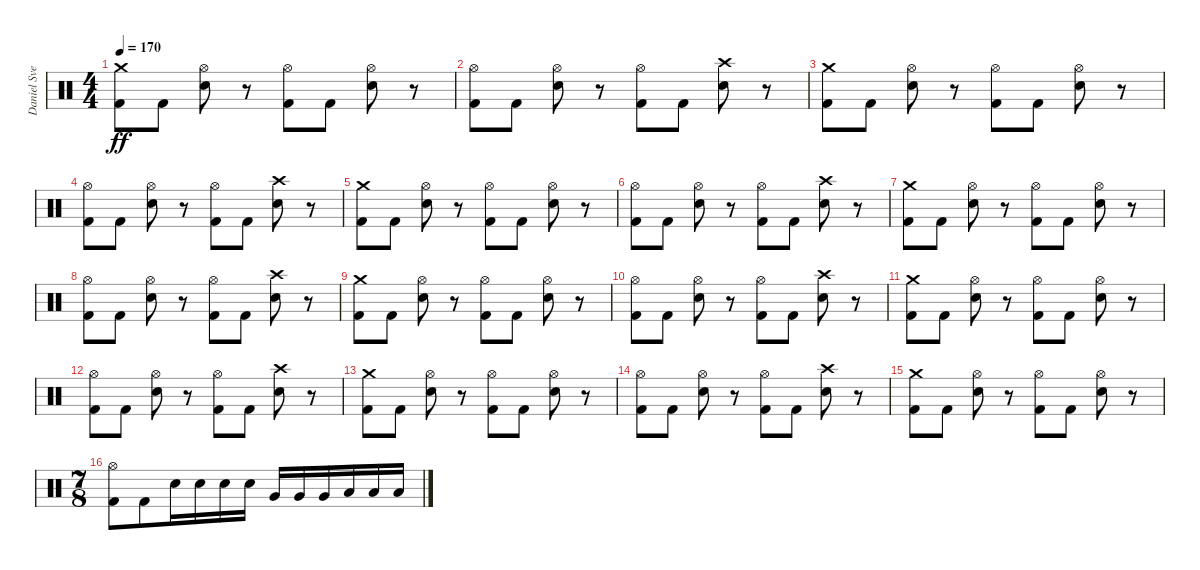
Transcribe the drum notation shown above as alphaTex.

\track ("Daniel Svensson" "Daniel Sve") {instrument percussion}
\staff {score}
\articulation defaults
\ts (4 4)
\tempo 170
\clef neutral
\ks c
("Crash medium (hit)" "Kick (hit) 2").8{dy ff} "Kick (hit) 2".8 ("Hi-Hat (open)" "Electric Snare (hit)").8 r.8 ("Hi-Hat (open)" "Kick (hit) 2").8 "Kick (hit) 2".8 ("Hi-Hat (open)" "Electric Snare (hit)").8 r.8 |
("Hi-Hat (open)" "Kick (hit) 2").8 "Kick (hit) 2".8 ("Hi-Hat (open)" "Electric Snare (hit)").8 r.8 ("Hi-Hat (open)" "Kick (hit) 2").8 "Kick (hit) 2".8 ("Crash high (hit)" "Electric Snare (hit)").8 r.8 |
("Crash medium (hit)" "Kick (hit) 2").8 "Kick (hit) 2".8 ("Hi-Hat (open)" "Electric Snare (hit)").8 r.8 ("Hi-Hat (open)" "Kick (hit) 2").8 "Kick (hit) 2".8 ("Hi-Hat (open)" "Electric Snare (hit)").8 r.8 |
("Hi-Hat (open)" "Kick (hit) 2").8 "Kick (hit) 2".8 ("Hi-Hat (open)" "Electric Snare (hit)").8 r.8 ("Hi-Hat (open)" "Kick (hit) 2").8 "Kick (hit) 2".8 ("Crash high (hit)" "Electric Snare (hit)").8 r.8 |
("Crash medium (hit)" "Kick (hit) 2").8 "Kick (hit) 2".8 ("Hi-Hat (open)" "Electric Snare (hit)").8 r.8 ("Hi-Hat (open)" "Kick (hit) 2").8 "Kick (hit) 2".8 ("Hi-Hat (open)" "Electric Snare (hit)").8 r.8 |
("Hi-Hat (open)" "Kick (hit) 2").8 "Kick (hit) 2".8 ("Hi-Hat (open)" "Electric Snare (hit)").8 r.8 ("Hi-Hat (open)" "Kick (hit) 2").8 "Kick (hit) 2".8 ("Crash high (hit)" "Electric Snare (hit)").8 r.8 |
("Crash medium (hit)" "Kick (hit) 2").8 "Kick (hit) 2".8 ("Hi-Hat (open)" "Electric Snare (hit)").8 r.8 ("Hi-Hat (open)" "Kick (hit) 2").8 "Kick (hit) 2".8 ("Hi-Hat (open)" "Electric Snare (hit)").8 r.8 |
("Hi-Hat (open)" "Kick (hit) 2").8 "Kick (hit) 2".8 ("Hi-Hat (open)" "Electric Snare (hit)").8 r.8 ("Hi-Hat (open)" "Kick (hit) 2").8 "Kick (hit) 2".8 ("Crash high (hit)" "Electric Snare (hit)").8 r.8 |
("Crash medium (hit)" "Kick (hit) 2").8 "Kick (hit) 2".8 ("Hi-Hat (open)" "Electric Snare (hit)").8 r.8 ("Hi-Hat (open)" "Kick (hit) 2").8 "Kick (hit) 2".8 ("Hi-Hat (open)" "Electric Snare (hit)").8 r.8 |
("Hi-Hat (open)" "Kick (hit) 2").8 "Kick (hit) 2".8 ("Hi-Hat (open)" "Electric Snare (hit)").8 r.8 ("Hi-Hat (open)" "Kick (hit) 2").8 "Kick (hit) 2".8 ("Crash high (hit)" "Electric Snare (hit)").8 r.8 |
("Crash medium (hit)" "Kick (hit) 2").8 "Kick (hit) 2".8 ("Hi-Hat (open)" "Electric Snare (hit)").8 r.8 ("Hi-Hat (open)" "Kick (hit) 2").8 "Kick (hit) 2".8 ("Hi-Hat (open)" "Electric Snare (hit)").8 r.8 |
("Hi-Hat (open)" "Kick (hit) 2").8 "Kick (hit) 2".8 ("Hi-Hat (open)" "Electric Snare (hit)").8 r.8 ("Hi-Hat (open)" "Kick (hit) 2").8 "Kick (hit) 2".8 ("Crash high (hit)" "Electric Snare (hit)").8 r.8 |
("Crash medium (hit)" "Kick (hit) 2").8 "Kick (hit) 2".8 ("Hi-Hat (open)" "Electric Snare (hit)").8 r.8 ("Hi-Hat (open)" "Kick (hit) 2").8 "Kick (hit) 2".8 ("Hi-Hat (open)" "Electric Snare (hit)").8 r.8 |
("Hi-Hat (open)" "Kick (hit) 2").8 "Kick (hit) 2".8 ("Hi-Hat (open)" "Electric Snare (hit)").8 r.8 ("Hi-Hat (open)" "Kick (hit) 2").8 "Kick (hit) 2".8 ("Crash high (hit)" "Electric Snare (hit)").8 r.8 |
("Crash medium (hit)" "Kick (hit) 2").8 "Kick (hit) 2".8 ("Hi-Hat (open)" "Electric Snare (hit)").8 r.8 ("Hi-Hat (open)" "Kick (hit) 2").8 "Kick (hit) 2".8 ("Hi-Hat (open)" "Electric Snare (hit)").8 r.8 |
\ts (7 8)
("Hi-Hat (open)" "Kick (hit) 2").8 "Kick (hit) 2".8 "Electric Snare (hit)".16 "Electric Snare (hit)".16 "Electric Snare (hit)".16 "Electric Snare (hit)".16 "Very Low Tom (hit)".16 "Very Low Tom (hit)".16 "Very Low Tom (hit)".16 "Low Floor Tom (hit)".16 "Low Floor Tom (hit)".16 "Low Floor Tom (hit)".16
